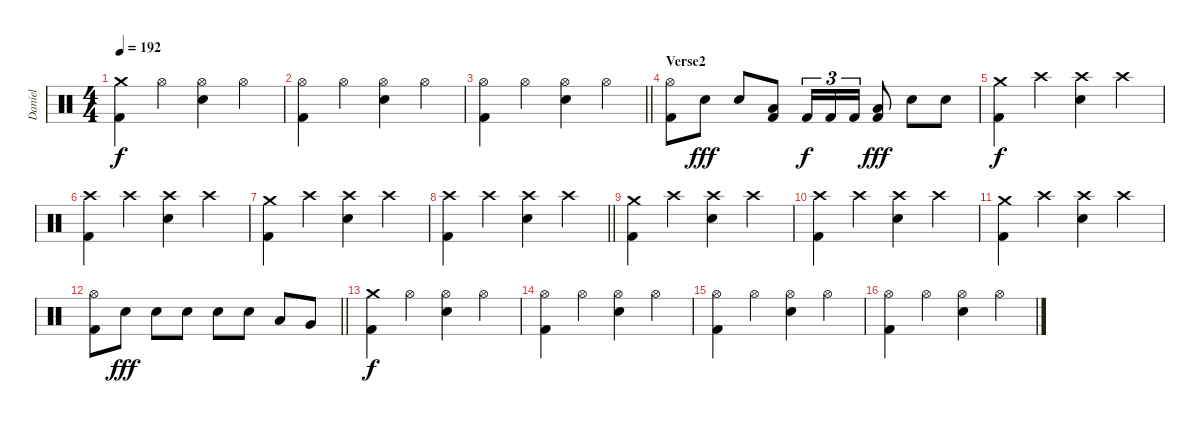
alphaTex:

\track ("Daniel" "Daniel") {instrument percussion}
\staff {score}
\articulation defaults
\ts (4 4)
\tempo 192
\clef neutral
\ks c
("Kick (hit) 2" "Crash medium (hit)").4{dy f} "Hi-Hat (open)".4 ("Electric Snare (hit)" "Hi-Hat (open)").4 "Hi-Hat (open)".4 |
("Kick (hit) 2" "Hi-Hat (open)").4 "Hi-Hat (open)".4 ("Electric Snare (hit)" "Hi-Hat (open)").4 "Hi-Hat (open)".4 |
\barLineRight lightlight
("Kick (hit) 2" "Hi-Hat (open)").4 "Hi-Hat (open)".4 ("Electric Snare (hit)" "Hi-Hat (open)").4 "Hi-Hat (open)".4 |
\section ("" "Verse2")
("Kick (hit) 2" "Hi-Hat (open)").8 "Electric Snare (hit)".8{dy fff} "Electric Snare (hit)".8 ("Kick (hit) 2" "Low Tom (hit)").8 "Kick (hit) 2".16{tu (3 2) dy f} "Kick (hit) 2".16{tu (3 2)} "Kick (hit) 2".16{tu (3 2)} ("Kick (hit) 2" "Low Tom (hit)").8{dy fff} "Electric Snare (hit)".8 "Electric Snare (hit)".8 |
("Kick (hit) 2" "Crash medium (hit)").4{dy f} "Crash high (hit)".4 ("Electric Snare (hit)" "Crash high (hit)").4 "Crash high (hit)".4 |
("Kick (hit) 2" "Crash high (hit)").4 "Crash high (hit)".4 ("Electric Snare (hit)" "Crash high (hit)").4 "Crash high (hit)".4 |
("Kick (hit) 2" "Crash medium (hit)").4 "Crash high (hit)".4 ("Electric Snare (hit)" "Crash high (hit)").4 "Crash high (hit)".4 |
\barLineRight lightlight
("Kick (hit) 2" "Crash high (hit)").4 "Crash high (hit)".4 ("Electric Snare (hit)" "Crash high (hit)").4 "Crash high (hit)".4 |
("Kick (hit) 2" "Crash medium (hit)").4 "Crash high (hit)".4 ("Electric Snare (hit)" "Crash high (hit)").4 "Crash high (hit)".4 |
("Kick (hit) 2" "Crash high (hit)").4 "Crash high (hit)".4 ("Electric Snare (hit)" "Crash high (hit)").4 "Crash high (hit)".4 |
("Kick (hit) 2" "Crash medium (hit)").4 "Crash high (hit)".4 ("Electric Snare (hit)" "Crash high (hit)").4 "Crash high (hit)".4 |
\barLineRight lightlight
("Kick (hit) 2" "Hi-Hat (open)").8 "Electric Snare (hit)".8{dy fff} "Electric Snare (hit)".8 "Electric Snare (hit)".8 "Electric Snare (hit)".8 "Electric Snare (hit)".8 "Low Tom (hit)".8 "Very Low Tom (hit)".8 |
("Kick (hit) 2" "Crash medium (hit)").4{dy f} "Hi-Hat (open)".4 ("Electric Snare (hit)" "Hi-Hat (open)").4 "Hi-Hat (open)".4 |
("Kick (hit) 2" "Hi-Hat (open)").4 "Hi-Hat (open)".4 ("Electric Snare (hit)" "Hi-Hat (open)").4 "Hi-Hat (open)".4 |
("Kick (hit) 2" "Hi-Hat (open)").4 "Hi-Hat (open)".4 ("Electric Snare (hit)" "Hi-Hat (open)").4 "Hi-Hat (open)".4 |
("Kick (hit) 2" "Hi-Hat (open)").4 "Hi-Hat (open)".4 ("Electric Snare (hit)" "Hi-Hat (open)").4 "Hi-Hat (open)".4
